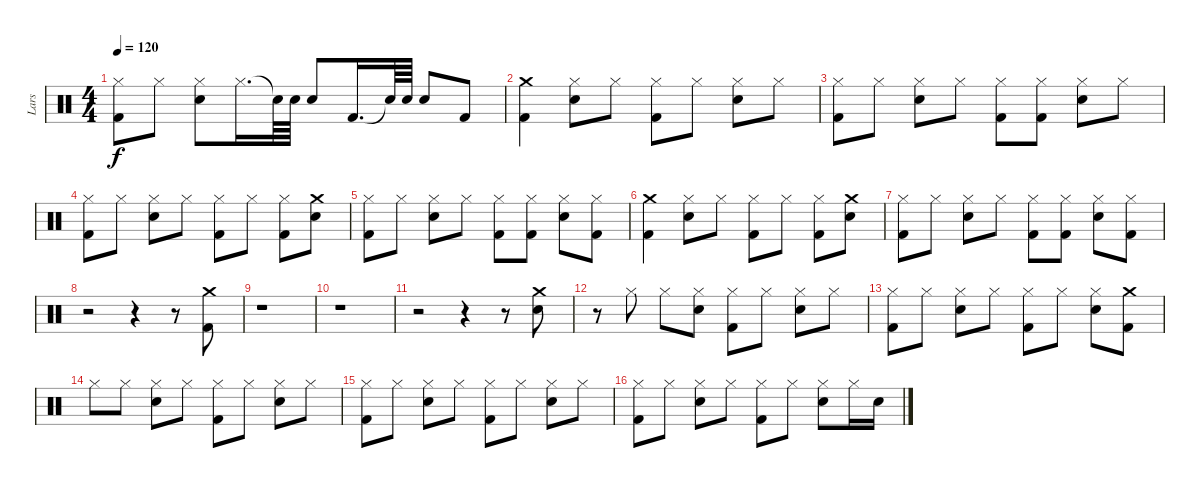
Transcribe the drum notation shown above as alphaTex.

\track ("Lars" "Lars") {instrument percussion}
\staff {score}
\articulation defaults
\ts (4 4)
\tempo 120
\clef neutral
\ks c
("Kick (hit) 2" "Hi-Hat (closed)").8{dy f} "Hi-Hat (closed)".8 ("Snare (hit) 2" "Hi-Hat (closed)").8 "Hi-Hat (closed)".16{d} "Snare (hit)"{t}.64 "Snare (hit) 2".64 "Snare (hit) 2".8 "Kick (hit) 2".16{d} "Snare (hit)"{t}.64 "Snare (hit) 2".64 "Snare (hit) 2".8 "Kick (hit) 2".8 |
("Kick (hit) 2" "Crash medium (hit)").4 ("Snare (hit) 2" "Hi-Hat (closed)").8 "Hi-Hat (closed)".8 ("Hi-Hat (closed)" "Kick (hit) 2").8 "Hi-Hat (closed)".8 ("Snare (hit) 2" "Hi-Hat (closed)").8 "Hi-Hat (closed)".8 |
("Hi-Hat (closed)" "Kick (hit) 2").8 "Hi-Hat (closed)".8 ("Snare (hit) 2" "Hi-Hat (closed)").8 "Hi-Hat (closed)".8 ("Kick (hit) 2" "Hi-Hat (closed)").8 ("Kick (hit) 2" "Hi-Hat (closed)").8 ("Snare (hit) 2" "Hi-Hat (closed)").8 "Hi-Hat (closed)".8 |
("Hi-Hat (closed)" "Kick (hit) 2").8 "Hi-Hat (closed)".8 ("Snare (hit) 2" "Hi-Hat (closed)").8 "Hi-Hat (closed)".8 ("Hi-Hat (closed)" "Kick (hit) 2").8 "Hi-Hat (closed)".8 ("Hi-Hat (closed)" "Kick (hit) 2").8 ("Crash medium (hit)" "Snare (hit) 2").8 |
("Hi-Hat (closed)" "Kick (hit) 2").8 "Hi-Hat (closed)".8 ("Snare (hit) 2" "Hi-Hat (closed)").8 "Hi-Hat (closed)".8 ("Kick (hit) 2" "Hi-Hat (closed)").8 ("Kick (hit) 2" "Hi-Hat (closed)").8 ("Snare (hit) 2" "Hi-Hat (closed)").8 ("Kick (hit) 2" "Hi-Hat (closed)").8 |
("Kick (hit) 2" "Crash medium (hit)").4 ("Hi-Hat (closed)" "Snare (hit) 2").8 "Hi-Hat (closed)".8 ("Kick (hit) 2" "Hi-Hat (closed)").8 "Hi-Hat (closed)".8 ("Kick (hit) 2" "Hi-Hat (closed)").8 ("Crash medium (hit)" "Snare (hit) 2").8 |
("Kick (hit) 2" "Hi-Hat (closed)").8 "Hi-Hat (closed)".8 ("Snare (hit) 2" "Hi-Hat (closed)").8 "Hi-Hat (closed)".8 ("Kick (hit) 2" "Hi-Hat (closed)").8 ("Kick (hit) 2" "Hi-Hat (closed)").8 ("Snare (hit) 2" "Hi-Hat (closed)").8 ("Kick (hit) 2" "Hi-Hat (closed)").8 |
r.2 r.4 r.8 ("Kick (hit) 2" "Crash medium (hit)").8 |
r.1 |
r.1 |
r.2 r.4 r.8 ("Snare (hit) 2" "Crash medium (hit)").8 |
r.8 "Hi-Hat (closed)".8 "Hi-Hat (closed)".8 ("Snare (hit) 2" "Hi-Hat (closed)").8 ("Kick (hit) 2" "Hi-Hat (closed)").8 "Hi-Hat (closed)".8 ("Snare (hit) 2" "Hi-Hat (closed)").8 "Hi-Hat (closed)".8 |
("Kick (hit) 2" "Hi-Hat (closed)").8 "Hi-Hat (closed)".8 ("Snare (hit) 2" "Hi-Hat (closed)").8 "Hi-Hat (closed)".8 ("Kick (hit) 2" "Hi-Hat (closed)").8 "Hi-Hat (closed)".8 ("Snare (hit) 2" "Hi-Hat (closed)").8 ("Crash medium (hit)" "Kick (hit) 2").8 |
"Hi-Hat (closed)".8 "Hi-Hat (closed)".8 ("Snare (hit) 2" "Hi-Hat (closed)").8 "Hi-Hat (closed)".8 ("Kick (hit) 2" "Hi-Hat (closed)").8 "Hi-Hat (closed)".8 ("Snare (hit) 2" "Hi-Hat (closed)").8 "Hi-Hat (closed)".8 |
("Kick (hit) 2" "Hi-Hat (closed)").8 "Hi-Hat (closed)".8 ("Snare (hit) 2" "Hi-Hat (closed)").8 "Hi-Hat (closed)".8 ("Kick (hit) 2" "Hi-Hat (closed)").8 "Hi-Hat (closed)".8 ("Snare (hit) 2" "Hi-Hat (closed)").8 "Hi-Hat (closed)".8 |
("Kick (hit) 2" "Hi-Hat (closed)").8 "Hi-Hat (closed)".8 ("Snare (hit) 2" "Hi-Hat (closed)").8 "Hi-Hat (closed)".8 ("Kick (hit) 2" "Hi-Hat (closed)").8 "Hi-Hat (closed)".8 ("Snare (hit) 2" "Hi-Hat (closed)").8 "Hi-Hat (closed)".16 "Snare (hit) 2".16
